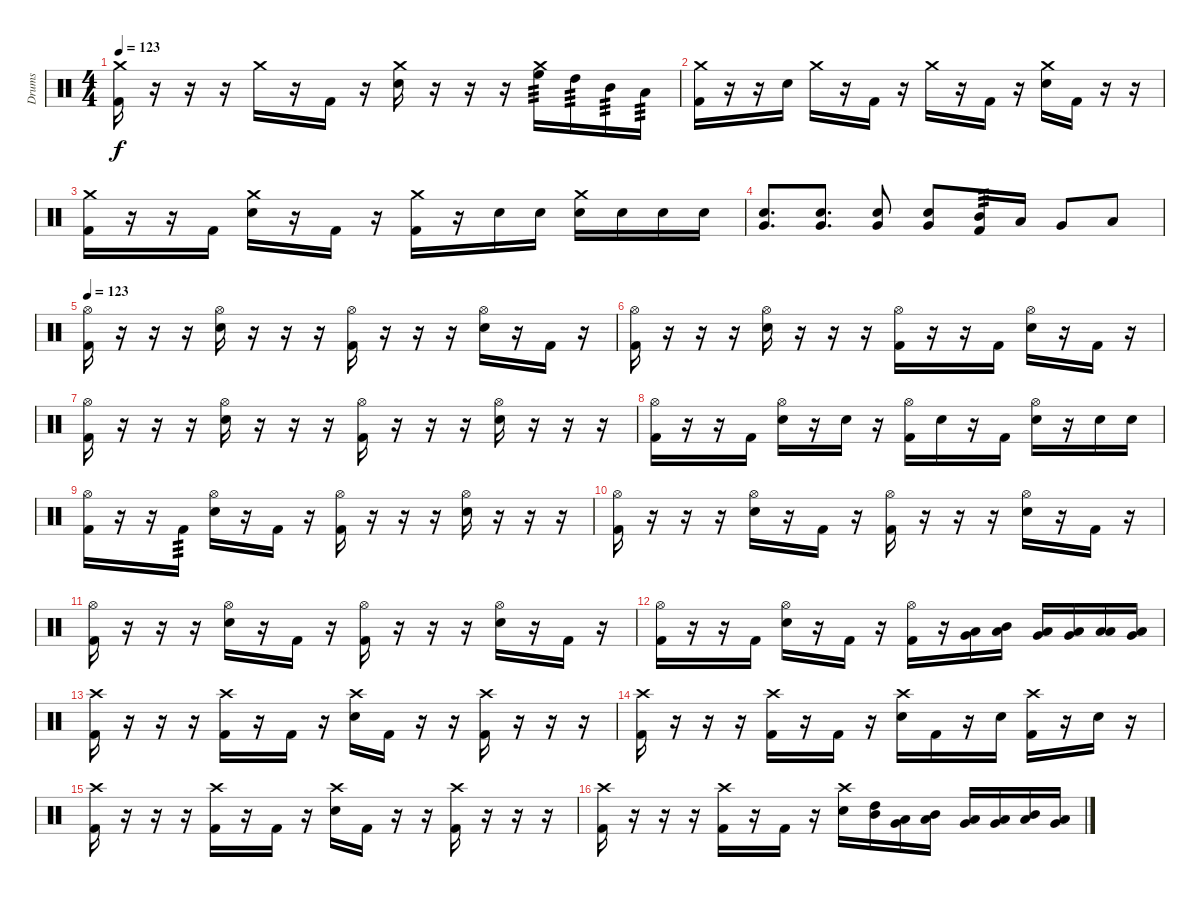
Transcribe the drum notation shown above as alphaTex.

\track ("Drums" "Drums") {instrument percussion}
\staff {score}
\articulation defaults
\ts (4 4)
\tempo 123
\clef neutral
\ks c
("Crash medium (hit)" "Kick (hit) 2").16{dy f} r.16 r.16 r.16 "Crash medium (hit)".16 r.16 "Kick (hit) 2".16 r.16 ("Crash medium (hit)" "Electric Snare (hit)").16 r.16 r.16 r.16 ("Crash medium (hit)" "High Floor Tom (hit)").16{tp 3} "High Tom (hit)".16{tp 3} "Mid Tom (hit)".16{tp 3} "Low Tom (hit)".16{tp 3} |
("Crash medium (hit)" "Kick (hit) 2").16 r.16 r.16 "Electric Snare (hit)".16 "Crash medium (hit)".16 r.16 "Kick (hit) 2".16 r.16 "Crash medium (hit)".16 r.16 "Kick (hit) 2".16 r.16 ("Crash medium (hit)" "Electric Snare (hit)").16 "Kick (hit) 2".16 r.16 r.16 |
("Crash medium (hit)" "Kick (hit) 2").16 r.16 r.16 "Kick (hit) 2".16 ("Crash medium (hit)" "Electric Snare (hit)").16 r.16 "Kick (hit) 2".16 r.16 ("Crash medium (hit)" "Kick (hit) 2").16 r.16 "Electric Snare (hit)".16 "Electric Snare (hit)".16 ("Crash medium (hit)" "Electric Snare (hit)").16 "Electric Snare (hit)".16 "Electric Snare (hit)".16 "Electric Snare (hit)".16 |
("Very Low Tom (hit)" "Snare (hit) 2").8{d} ("Very Low Tom (hit)" "Snare (hit) 2").8{d} ("Very Low Tom (hit)" "Snare (hit) 2").8 ("Very Low Tom (hit)" "Snare (hit) 2").8 ("Mid Tom (hit)" "Kick (hit) 2").16{tp 3} "Low Tom (hit)".16 "Very Low Tom (hit)".8 "Low Floor Tom (hit)".8 |
\tempo 123
("Hi-Hat (open)" "Kick (hit) 2").16 r.16 r.16 r.16 ("Hi-Hat (open)" "Electric Snare (hit)").16 r.16 r.16 r.16 ("Hi-Hat (open)" "Kick (hit) 2").16 r.16 r.16 r.16 ("Hi-Hat (open)" "Electric Snare (hit)").16 r.16 "Kick (hit) 2".16 r.16 |
("Hi-Hat (open)" "Kick (hit) 2").16 r.16 r.16 r.16 ("Hi-Hat (open)" "Electric Snare (hit)").16 r.16 r.16 r.16 ("Hi-Hat (open)" "Kick (hit) 2").16 r.16 r.16 "Kick (hit) 2".16 ("Hi-Hat (open)" "Electric Snare (hit)").16 r.16 "Kick (hit) 2".16 r.16 |
("Hi-Hat (open)" "Kick (hit) 2").16 r.16 r.16 r.16 ("Hi-Hat (open)" "Electric Snare (hit)").16 r.16 r.16 r.16 ("Hi-Hat (open)" "Kick (hit) 2").16 r.16 r.16 r.16 ("Hi-Hat (open)" "Electric Snare (hit)").16 r.16 r.16 r.16 |
("Hi-Hat (open)" "Kick (hit) 2").16 r.16 r.16 "Kick (hit) 2".16 ("Hi-Hat (open)" "Electric Snare (hit)").16 r.16 "Electric Snare (hit)".16 r.16 ("Hi-Hat (open)" "Kick (hit) 2").16 "Electric Snare (hit)".16 r.16 "Kick (hit) 2".16 ("Hi-Hat (open)" "Electric Snare (hit)").16 r.16 "Electric Snare (hit)".16 "Electric Snare (hit)".16 |
("Hi-Hat (open)" "Kick (hit) 2").16 r.16 r.16 "Kick (hit) 2".16{tp 3} ("Hi-Hat (open)" "Electric Snare (hit)").16 r.16 "Kick (hit) 2".16 r.16 ("Hi-Hat (open)" "Kick (hit) 2").16 r.16 r.16 r.16 ("Hi-Hat (open)" "Electric Snare (hit)").16 r.16 r.16 r.16 |
("Hi-Hat (open)" "Kick (hit) 2").16 r.16 r.16 r.16 ("Hi-Hat (open)" "Electric Snare (hit)").16 r.16 "Kick (hit) 2".16 r.16 ("Hi-Hat (open)" "Kick (hit) 2").16 r.16 r.16 r.16 ("Hi-Hat (open)" "Electric Snare (hit)").16 r.16 "Kick (hit) 2".16 r.16 |
("Hi-Hat (open)" "Kick (hit) 2").16 r.16 r.16 r.16 ("Hi-Hat (open)" "Electric Snare (hit)").16 r.16 "Kick (hit) 2".16 r.16 ("Hi-Hat (open)" "Kick (hit) 2").16 r.16 r.16 r.16 ("Hi-Hat (open)" "Electric Snare (hit)").16 r.16 "Kick (hit) 2".16 r.16 |
("Hi-Hat (open)" "Kick (hit) 2").16 r.16 r.16 "Kick (hit) 2".16 ("Hi-Hat (open)" "Electric Snare (hit)").16 r.16 "Kick (hit) 2".16 r.16 ("Hi-Hat (open)" "Kick (hit) 2").16 r.16 ("Low Tom (hit)" "Very Low Tom (hit)").16 ("Mid Tom (hit)" "Low Tom (hit)").16 ("Very Low Tom (hit)" "Low Floor Tom (hit)").16 ("Low Tom (hit)" "Very Low Tom (hit)").16 ("Low Floor Tom (hit)" "Low Tom (hit)").16 ("Very Low Tom (hit)" "Low Floor Tom (hit)").16 |
("Crash high (hit)" "Kick (hit) 2").16 r.16 r.16 r.16 ("Crash high (hit)" "Kick (hit) 2").16 r.16 "Kick (hit) 2".16 r.16 ("Crash high (hit)" "Electric Snare (hit)").16 "Kick (hit) 2".16 r.16 r.16 ("Crash high (hit)" "Kick (hit) 2").16 r.16 r.16 r.16 |
("Crash high (hit)" "Kick (hit) 2").16 r.16 r.16 r.16 ("Crash high (hit)" "Kick (hit) 2").16 r.16 "Kick (hit) 2".16 r.16 ("Crash high (hit)" "Electric Snare (hit)").16 "Kick (hit) 2".16 r.16 "Electric Snare (hit)".16 ("Crash high (hit)" "Kick (hit) 2").16 r.16 "Electric Snare (hit)".16 r.16 |
("Crash high (hit)" "Kick (hit) 2").16 r.16 r.16 r.16 ("Crash high (hit)" "Kick (hit) 2").16 r.16 "Kick (hit) 2".16 r.16 ("Crash high (hit)" "Electric Snare (hit)").16 "Kick (hit) 2".16 r.16 r.16 ("Crash high (hit)" "Kick (hit) 2").16 r.16 r.16 r.16 |
("Crash high (hit)" "Kick (hit) 2").16 r.16 r.16 r.16 ("Crash high (hit)" "Kick (hit) 2").16 r.16 "Kick (hit) 2".16 r.16 ("Crash high (hit)" "Snare (hit) 2").16 ("High Tom (hit)" "Mid Tom (hit)").16 ("Low Tom (hit)" "Very Low Tom (hit)").16 ("Mid Tom (hit)" "Low Tom (hit)").16 ("Very Low Tom (hit)" "Low Floor Tom (hit)").16 ("Low Tom (hit)" "Very Low Tom (hit)").16 ("Low Floor Tom (hit)" "Mid Tom (hit)").16 ("Low Tom (hit)" "Very Low Tom (hit)").16
